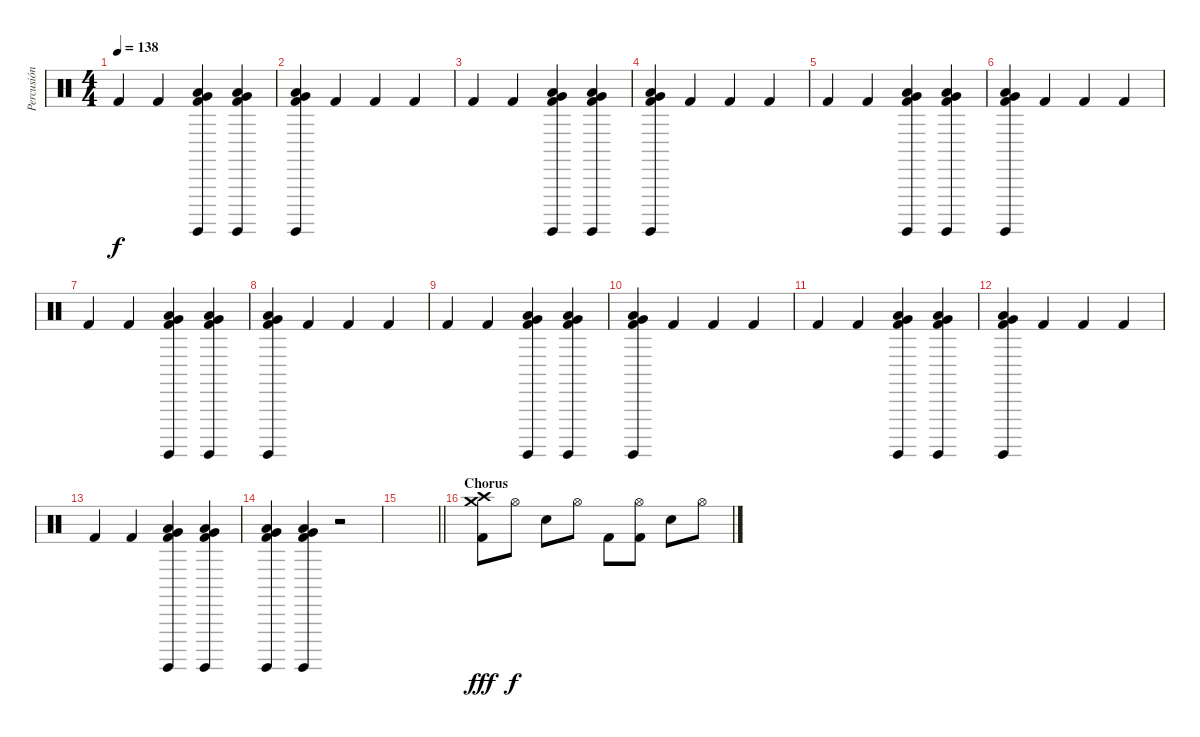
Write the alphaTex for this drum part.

\track ("Percusión" "Percusión") {instrument percussion}
\staff {score}
\articulation defaults
\ts (4 4)
\tempo 138
\clef neutral
\ks c "Kick (hit) 2".4{dy f} "Kick (hit) 2".4
("Low Tom (hit)" "Surdo (hit)" "Very Low Tom (hit)" "Kick (hit) 2").4 ("Low Tom (hit)" "Surdo (hit)" "Very Low Tom (hit)" "Kick (hit) 2").4 |
("Low Tom (hit)" "Surdo (hit)" "Very Low Tom (hit)" "Kick (hit) 2").4 "Kick (hit) 2".4 "Kick (hit) 2".4 "Kick (hit) 2".4 |
"Kick (hit) 2".4 "Kick (hit) 2".4 ("Low Tom (hit)" "Surdo (hit)" "Very Low Tom (hit)" "Kick (hit) 2").4 ("Low Tom (hit)" "Surdo (hit)" "Very Low Tom (hit)" "Kick (hit) 2").4 |
("Low Tom (hit)" "Surdo (hit)" "Very Low Tom (hit)" "Kick (hit) 2").4 "Kick (hit) 2".4 "Kick (hit) 2".4 "Kick (hit) 2".4 |
"Kick (hit) 2".4 "Kick (hit) 2".4 ("Low Tom (hit)" "Surdo (hit)" "Very Low Tom (hit)" "Kick (hit) 2").4 ("Low Tom (hit)" "Surdo (hit)" "Very Low Tom (hit)" "Kick (hit) 2").4 |
("Low Tom (hit)" "Surdo (hit)" "Very Low Tom (hit)" "Kick (hit) 2").4 "Kick (hit) 2".4 "Kick (hit) 2".4 "Kick (hit) 2".4 |
"Kick (hit) 2".4 "Kick (hit) 2".4 ("Low Tom (hit)" "Surdo (hit)" "Very Low Tom (hit)" "Kick (hit) 2").4 ("Low Tom (hit)" "Surdo (hit)" "Very Low Tom (hit)" "Kick (hit) 2").4 |
("Low Tom (hit)" "Surdo (hit)" "Very Low Tom (hit)" "Kick (hit) 2").4 "Kick (hit) 2".4 "Kick (hit) 2".4 "Kick (hit) 2".4 |
"Kick (hit) 2".4 "Kick (hit) 2".4 ("Low Tom (hit)" "Surdo (hit)" "Very Low Tom (hit)" "Kick (hit) 2").4 ("Low Tom (hit)" "Surdo (hit)" "Very Low Tom (hit)" "Kick (hit) 2").4 |
("Low Tom (hit)" "Surdo (hit)" "Very Low Tom (hit)" "Kick (hit) 2").4 "Kick (hit) 2".4 "Kick (hit) 2".4 "Kick (hit) 2".4 |
"Kick (hit) 2".4 "Kick (hit) 2".4 ("Low Tom (hit)" "Surdo (hit)" "Very Low Tom (hit)" "Kick (hit) 2").4 ("Low Tom (hit)" "Surdo (hit)" "Very Low Tom (hit)" "Kick (hit) 2").4 |
("Low Tom (hit)" "Surdo (hit)" "Very Low Tom (hit)" "Kick (hit) 2").4 "Kick (hit) 2".4 "Kick (hit) 2".4 "Kick (hit) 2".4 |
"Kick (hit) 2".4 "Kick (hit) 2".4 ("Low Tom (hit)" "Surdo (hit)" "Very Low Tom (hit)" "Kick (hit) 2").4 ("Low Tom (hit)" "Surdo (hit)" "Very Low Tom (hit)" "Kick (hit) 2").4 |
("Low Tom (hit)" "Surdo (hit)" "Very Low Tom (hit)" "Kick (hit) 2").4 ("Low Tom (hit)" "Surdo (hit)" "Very Low Tom (hit)" "Kick (hit) 2").4 r.2 |
\barLineRight lightlight
|
\section ("" "Chorus")
("Crash medium (hit)" "Crash high (hit)" "Kick (hit) 2").8{dy fff} "Hi-Hat (open)".8{dy f} "Electric Snare (hit)".8 "Hi-Hat (open)".8 "Kick (hit) 2".8 ("Hi-Hat (open)" "Kick (hit) 2").8 "Electric Snare (hit)".8 "Hi-Hat (open)".8
